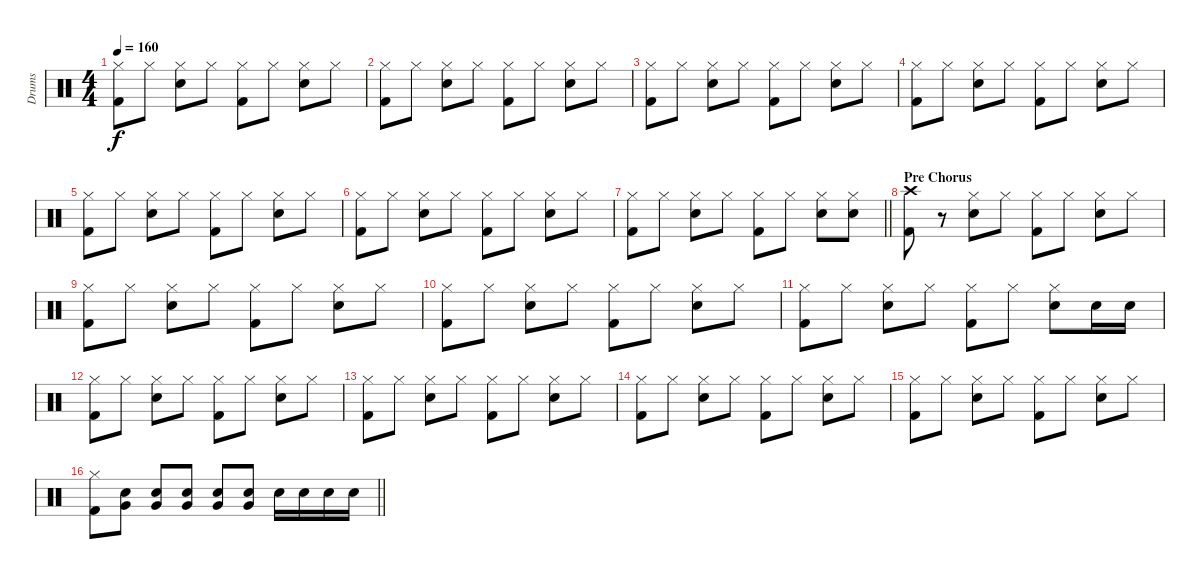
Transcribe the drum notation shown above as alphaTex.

\track ("Drums" "Drums") {instrument percussion}
\staff {score}
\articulation defaults
\ts (4 4)
\tempo 160
\clef neutral
\ks c
("Hi-Hat (closed)" "Kick (hit) 2").8{dy f} "Hi-Hat (closed)".8 ("Hi-Hat (closed)" "Electric Snare (hit)").8 "Hi-Hat (closed)".8 ("Hi-Hat (closed)" "Kick (hit) 2").8 "Hi-Hat (closed)".8 ("Hi-Hat (closed)" "Electric Snare (hit)").8 "Hi-Hat (closed)".8 |
("Hi-Hat (closed)" "Kick (hit) 2").8 "Hi-Hat (closed)".8 ("Hi-Hat (closed)" "Electric Snare (hit)").8 "Hi-Hat (closed)".8 ("Hi-Hat (closed)" "Kick (hit) 2").8 "Hi-Hat (closed)".8 ("Hi-Hat (closed)" "Electric Snare (hit)").8 "Hi-Hat (closed)".8 |
("Hi-Hat (closed)" "Kick (hit) 2").8 "Hi-Hat (closed)".8 ("Hi-Hat (closed)" "Electric Snare (hit)").8 "Hi-Hat (closed)".8 ("Hi-Hat (closed)" "Kick (hit) 2").8 "Hi-Hat (closed)".8 ("Hi-Hat (closed)" "Electric Snare (hit)").8 "Hi-Hat (closed)".8 |
("Hi-Hat (closed)" "Kick (hit) 2").8 "Hi-Hat (closed)".8 ("Hi-Hat (closed)" "Electric Snare (hit)").8 "Hi-Hat (closed)".8 ("Hi-Hat (closed)" "Kick (hit) 2").8 "Hi-Hat (closed)".8 ("Hi-Hat (closed)" "Electric Snare (hit)").8 "Hi-Hat (closed)".8 |
("Hi-Hat (closed)" "Kick (hit) 2").8 "Hi-Hat (closed)".8 ("Hi-Hat (closed)" "Electric Snare (hit)").8 "Hi-Hat (closed)".8 ("Hi-Hat (closed)" "Kick (hit) 2").8 "Hi-Hat (closed)".8 ("Hi-Hat (closed)" "Electric Snare (hit)").8 "Hi-Hat (closed)".8 |
("Hi-Hat (closed)" "Kick (hit) 2").8 "Hi-Hat (closed)".8 ("Hi-Hat (closed)" "Electric Snare (hit)").8 "Hi-Hat (closed)".8 ("Hi-Hat (closed)" "Kick (hit) 2").8 "Hi-Hat (closed)".8 ("Hi-Hat (closed)" "Electric Snare (hit)").8 "Hi-Hat (closed)".8 |
\barLineRight lightlight
("Hi-Hat (closed)" "Kick (hit) 2").8 "Hi-Hat (closed)".8 ("Hi-Hat (closed)" "Electric Snare (hit)").8 "Hi-Hat (closed)".8 ("Hi-Hat (closed)" "Kick (hit) 2").8 "Hi-Hat (closed)".8 ("Hi-Hat (closed)" "Electric Snare (hit)").8 ("Hi-Hat (closed)" "Electric Snare (hit)").8 |
\section ("" "Pre Chorus")
("Crash high (hit)" "Kick (hit) 2").8 r.8 ("Hi-Hat (closed)" "Electric Snare (hit)").8 "Hi-Hat (closed)".8 ("Hi-Hat (closed)" "Kick (hit) 2").8 "Hi-Hat (closed)".8 ("Hi-Hat (closed)" "Electric Snare (hit)").8 "Hi-Hat (closed)".8 |
("Hi-Hat (closed)" "Kick (hit) 2").8 "Hi-Hat (closed)".8 ("Hi-Hat (closed)" "Electric Snare (hit)").8 "Hi-Hat (closed)".8 ("Hi-Hat (closed)" "Kick (hit) 2").8 "Hi-Hat (closed)".8 ("Hi-Hat (closed)" "Electric Snare (hit)").8 "Hi-Hat (closed)".8 |
("Hi-Hat (closed)" "Kick (hit) 2").8 "Hi-Hat (closed)".8 ("Hi-Hat (closed)" "Electric Snare (hit)").8 "Hi-Hat (closed)".8 ("Hi-Hat (closed)" "Kick (hit) 2").8 "Hi-Hat (closed)".8 ("Hi-Hat (closed)" "Electric Snare (hit)").8 "Hi-Hat (closed)".8 |
("Hi-Hat (closed)" "Kick (hit) 2").8 "Hi-Hat (closed)".8 ("Hi-Hat (closed)" "Electric Snare (hit)").8 "Hi-Hat (closed)".8 ("Hi-Hat (closed)" "Kick (hit) 2").8 "Hi-Hat (closed)".8 ("Hi-Hat (closed)" "Electric Snare (hit)").8 "Electric Snare (hit)".16 "Electric Snare (hit)".16 |
("Hi-Hat (closed)" "Kick (hit) 2").8 "Hi-Hat (closed)".8 ("Hi-Hat (closed)" "Electric Snare (hit)").8 "Hi-Hat (closed)".8 ("Hi-Hat (closed)" "Kick (hit) 2").8 "Hi-Hat (closed)".8 ("Hi-Hat (closed)" "Electric Snare (hit)").8 "Hi-Hat (closed)".8 |
("Hi-Hat (closed)" "Kick (hit) 2").8 "Hi-Hat (closed)".8 ("Hi-Hat (closed)" "Electric Snare (hit)").8 "Hi-Hat (closed)".8 ("Hi-Hat (closed)" "Kick (hit) 2").8 "Hi-Hat (closed)".8 ("Hi-Hat (closed)" "Electric Snare (hit)").8 "Hi-Hat (closed)".8 |
("Hi-Hat (closed)" "Kick (hit) 2").8 "Hi-Hat (closed)".8 ("Hi-Hat (closed)" "Electric Snare (hit)").8 "Hi-Hat (closed)".8 ("Hi-Hat (closed)" "Kick (hit) 2").8 "Hi-Hat (closed)".8 ("Hi-Hat (closed)" "Electric Snare (hit)").8 "Hi-Hat (closed)".8 |
("Hi-Hat (closed)" "Kick (hit) 2").8 "Hi-Hat (closed)".8 ("Hi-Hat (closed)" "Electric Snare (hit)").8 "Hi-Hat (closed)".8 ("Hi-Hat (closed)" "Kick (hit) 2").8 "Hi-Hat (closed)".8 ("Hi-Hat (closed)" "Electric Snare (hit)").8 "Hi-Hat (closed)".8 |
\barLineRight lightlight
("Hi-Hat (closed)" "Kick (hit) 2").8 ("Electric Snare (hit)" "Very Low Tom (hit)").8 ("Electric Snare (hit)" "Very Low Tom (hit)").8 ("Electric Snare (hit)" "Very Low Tom (hit)").8 ("Electric Snare (hit)" "Very Low Tom (hit)").8 ("Electric Snare (hit)" "Very Low Tom (hit)").8 "Electric Snare (hit)".16 "Electric Snare (hit)".16 "Electric Snare (hit)".16 "Electric Snare (hit)".16
